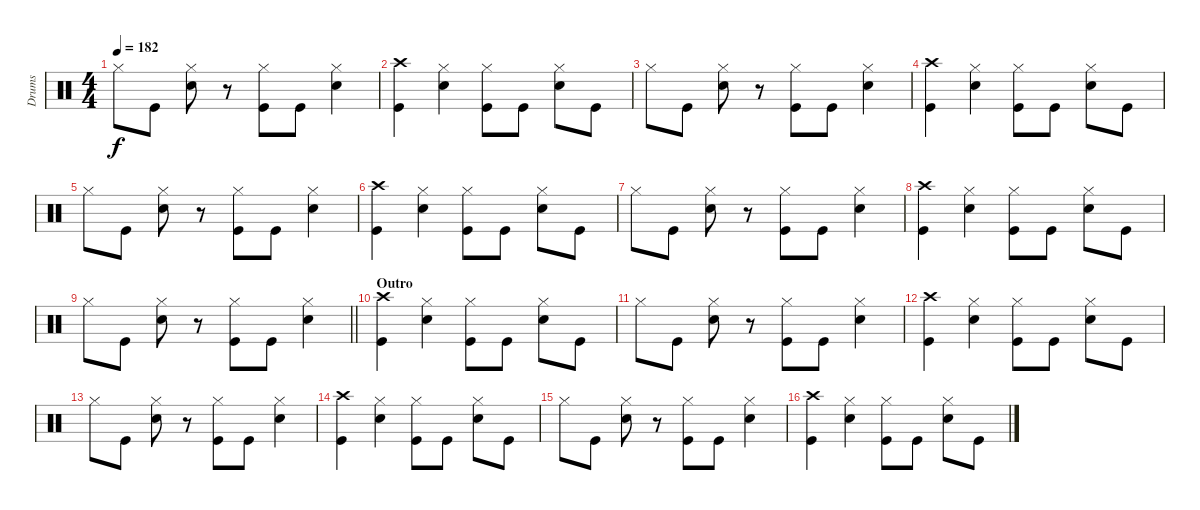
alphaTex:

\track ("Drums" "Drums") {instrument percussion}
\staff {score}
\articulation defaults
\ts (4 4)
\tempo 182
\clef neutral
\ks c "Hi-Hat (closed)".8{dy f} "Kick (hit)".8
("Hi-Hat (closed)" "Snare (hit) 2").8 r.8 ("Hi-Hat (closed)" "Kick (hit)").8 "Kick (hit)".8 ("Hi-Hat (closed)" "Snare (hit) 2").4 |
("Crash high (hit)" "Kick (hit)").4 ("Hi-Hat (closed)" "Snare (hit) 2").4 ("Hi-Hat (closed)" "Kick (hit)").8 "Kick (hit)".8 ("Hi-Hat (closed)" "Snare (hit) 2").8 "Kick (hit)".8 |
"Hi-Hat (closed)".8 "Kick (hit)".8 ("Hi-Hat (closed)" "Snare (hit) 2").8 r.8 ("Hi-Hat (closed)" "Kick (hit)").8 "Kick (hit)".8 ("Hi-Hat (closed)" "Snare (hit) 2").4 |
("Crash high (hit)" "Kick (hit)").4 ("Hi-Hat (closed)" "Snare (hit) 2").4 ("Hi-Hat (closed)" "Kick (hit)").8 "Kick (hit)".8 ("Hi-Hat (closed)" "Snare (hit) 2").8 "Kick (hit)".8 |
"Hi-Hat (closed)".8 "Kick (hit)".8 ("Hi-Hat (closed)" "Snare (hit) 2").8 r.8 ("Hi-Hat (closed)" "Kick (hit)").8 "Kick (hit)".8 ("Hi-Hat (closed)" "Snare (hit) 2").4 |
("Crash high (hit)" "Kick (hit)").4 ("Hi-Hat (closed)" "Snare (hit) 2").4 ("Hi-Hat (closed)" "Kick (hit)").8 "Kick (hit)".8 ("Hi-Hat (closed)" "Snare (hit) 2").8 "Kick (hit)".8 |
"Hi-Hat (closed)".8 "Kick (hit)".8 ("Hi-Hat (closed)" "Snare (hit) 2").8 r.8 ("Hi-Hat (closed)" "Kick (hit)").8 "Kick (hit)".8 ("Hi-Hat (closed)" "Snare (hit) 2").4 |
("Crash high (hit)" "Kick (hit)").4 ("Hi-Hat (closed)" "Snare (hit) 2").4 ("Hi-Hat (closed)" "Kick (hit)").8 "Kick (hit)".8 ("Hi-Hat (closed)" "Snare (hit) 2").8 "Kick (hit)".8 |
\barLineRight lightlight "Hi-Hat (closed)".8 "Kick (hit)".8
("Hi-Hat (closed)" "Snare (hit) 2").8 r.8 ("Hi-Hat (closed)" "Kick (hit)").8 "Kick (hit)".8 ("Hi-Hat (closed)" "Snare (hit) 2").4 |
\section ("" "Outro")
("Crash high (hit)" "Kick (hit)").4 ("Hi-Hat (closed)" "Snare (hit) 2").4 ("Hi-Hat (closed)" "Kick (hit)").8 "Kick (hit)".8 ("Hi-Hat (closed)" "Snare (hit) 2").8 "Kick (hit)".8 |
"Hi-Hat (closed)".8 "Kick (hit)".8 ("Hi-Hat (closed)" "Snare (hit) 2").8 r.8 ("Hi-Hat (closed)" "Kick (hit)").8 "Kick (hit)".8 ("Hi-Hat (closed)" "Snare (hit) 2").4 |
("Crash high (hit)" "Kick (hit)").4 ("Hi-Hat (closed)" "Snare (hit) 2").4 ("Hi-Hat (closed)" "Kick (hit)").8 "Kick (hit)".8 ("Hi-Hat (closed)" "Snare (hit) 2").8 "Kick (hit)".8 |
"Hi-Hat (closed)".8 "Kick (hit)".8 ("Hi-Hat (closed)" "Snare (hit) 2").8 r.8 ("Hi-Hat (closed)" "Kick (hit)").8 "Kick (hit)".8 ("Hi-Hat (closed)" "Snare (hit) 2").4 |
("Crash high (hit)" "Kick (hit)").4 ("Hi-Hat (closed)" "Snare (hit) 2").4 ("Hi-Hat (closed)" "Kick (hit)").8 "Kick (hit)".8 ("Hi-Hat (closed)" "Snare (hit) 2").8 "Kick (hit)".8 |
"Hi-Hat (closed)".8 "Kick (hit)".8 ("Hi-Hat (closed)" "Snare (hit) 2").8 r.8 ("Hi-Hat (closed)" "Kick (hit)").8 "Kick (hit)".8 ("Hi-Hat (closed)" "Snare (hit) 2").4 |
("Crash high (hit)" "Kick (hit)").4 ("Hi-Hat (closed)" "Snare (hit) 2").4 ("Hi-Hat (closed)" "Kick (hit)").8 "Kick (hit)".8 ("Hi-Hat (closed)" "Snare (hit) 2").8 "Kick (hit)".8
